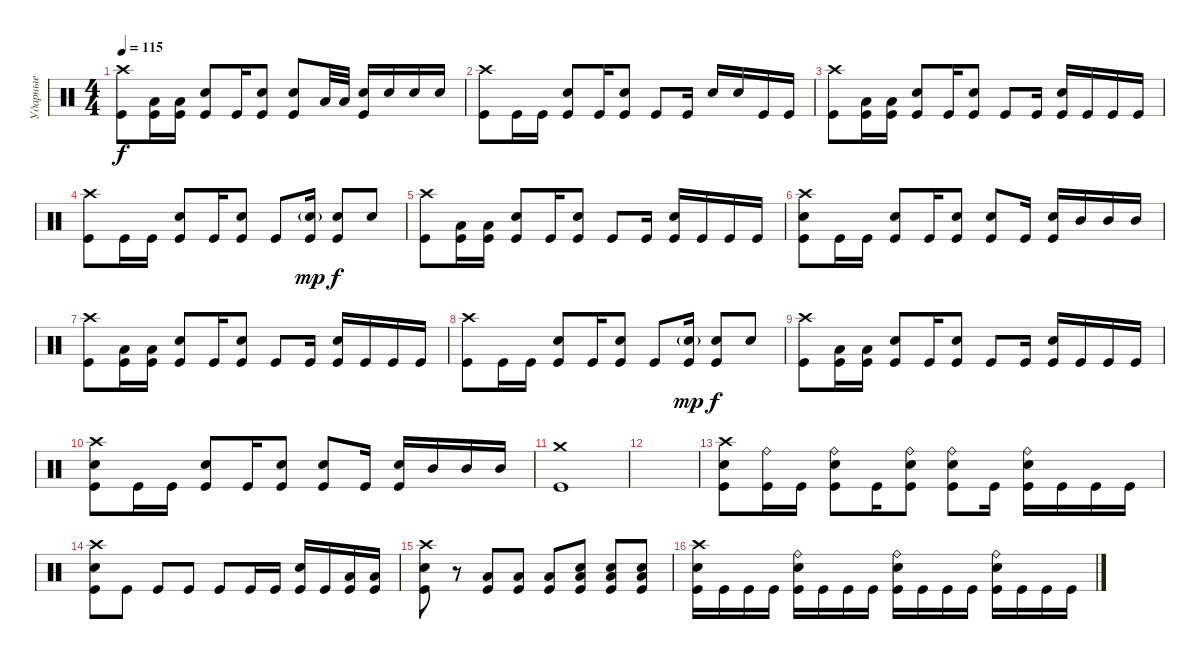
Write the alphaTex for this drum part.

\track ("Ударные" "Ударные") {instrument percussion}
\staff {score}
\articulation defaults
\ts (4 4)
\tempo 115
\clef neutral
\ks c
("Crash high (hit)" "Kick (hit)").8{dy f} ("Low Tom (hit)" "Kick (hit)").16 ("Low Tom (hit)" "Kick (hit)").16 ("Electric Snare (hit)" "Kick (hit)").8 "Kick (hit)".16 ("Electric Snare (hit)" "Kick (hit)").8 ("Electric Snare (hit)" "Kick (hit)").8 "Low Tom (hit)".32 "Low Tom (hit)".32 ("Electric Snare (hit)" "Kick (hit)").16 "Electric Snare (hit)".16 "Electric Snare (hit)".16 "Electric Snare (hit)".16 |
("Crash high (hit)" "Kick (hit)").8 "Kick (hit)".16 "Kick (hit)".16 ("Electric Snare (hit)" "Kick (hit)").8 "Kick (hit)".16 ("Electric Snare (hit)" "Kick (hit)").8 "Kick (hit)".8 "Kick (hit)".16 "Electric Snare (hit)".16 "Electric Snare (hit)".16 "Kick (hit)".16 "Kick (hit)".16 |
("Crash high (hit)" "Kick (hit)").8 ("Low Tom (hit)" "Kick (hit)").16 ("Low Tom (hit)" "Kick (hit)").16 ("Electric Snare (hit)" "Kick (hit)").8 "Kick (hit)".16 ("Electric Snare (hit)" "Kick (hit)").8 "Kick (hit)".8 "Kick (hit)".16 ("Electric Snare (hit)" "Kick (hit)").16 "Kick (hit)".16 "Kick (hit)".16 "Kick (hit)".16 |
("Crash high (hit)" "Kick (hit)").8 "Kick (hit)".16 "Kick (hit)".16 ("Electric Snare (hit)" "Kick (hit)").8 "Kick (hit)".16 ("Electric Snare (hit)" "Kick (hit)").8 "Kick (hit)".8 ("Electric Snare (hit)"{g} "Kick (hit)").16{dy mp} ("Electric Snare (hit)" "Kick (hit)").8{dy f} "Electric Snare (hit)".8 |
("Crash high (hit)" "Kick (hit)").8 ("Low Tom (hit)" "Kick (hit)").16 ("Low Tom (hit)" "Kick (hit)").16 ("Electric Snare (hit)" "Kick (hit)").8 "Kick (hit)".16 ("Electric Snare (hit)" "Kick (hit)").8 "Kick (hit)".8 "Kick (hit)".16 ("Electric Snare (hit)" "Kick (hit)").16 "Kick (hit)".16 "Kick (hit)".16 "Kick (hit)".16 |
("Crash high (hit)" "Electric Snare (hit)" "Kick (hit)").8 "Kick (hit)".16 "Kick (hit)".16 ("Electric Snare (hit)" "Kick (hit)").8 "Kick (hit)".16 ("Electric Snare (hit)" "Kick (hit)").8 ("Electric Snare (hit)" "Kick (hit)").8 "Kick (hit)".16 ("Electric Snare (hit)" "Kick (hit)").16 "Mid Tom (hit)".16 "Mid Tom (hit)".16 "Mid Tom (hit)".16 |
("Crash high (hit)" "Kick (hit)").8 ("Low Tom (hit)" "Kick (hit)").16 ("Low Tom (hit)" "Kick (hit)").16 ("Electric Snare (hit)" "Kick (hit)").8 "Kick (hit)".16 ("Electric Snare (hit)" "Kick (hit)").8 "Kick (hit)".8 "Kick (hit)".16 ("Electric Snare (hit)" "Kick (hit)").16 "Kick (hit)".16 "Kick (hit)".16 "Kick (hit)".16 |
("Crash high (hit)" "Kick (hit)").8 "Kick (hit)".16 "Kick (hit)".16 ("Electric Snare (hit)" "Kick (hit)").8 "Kick (hit)".16 ("Electric Snare (hit)" "Kick (hit)").8 "Kick (hit)".8 ("Electric Snare (hit)"{g} "Kick (hit)").16{dy mp} ("Electric Snare (hit)" "Kick (hit)").8{dy f} "Electric Snare (hit)".8 |
("Crash high (hit)" "Kick (hit)").8 ("Low Tom (hit)" "Kick (hit)").16 ("Low Tom (hit)" "Kick (hit)").16 ("Electric Snare (hit)" "Kick (hit)").8 "Kick (hit)".16 ("Electric Snare (hit)" "Kick (hit)").8 "Kick (hit)".8 "Kick (hit)".16 ("Electric Snare (hit)" "Kick (hit)").16 "Kick (hit)".16 "Kick (hit)".16 "Kick (hit)".16 |
("Crash high (hit)" "Electric Snare (hit)" "Kick (hit)").8 "Kick (hit)".16 "Kick (hit)".16 ("Electric Snare (hit)" "Kick (hit)").8 "Kick (hit)".16 ("Electric Snare (hit)" "Kick (hit)").8 ("Electric Snare (hit)" "Kick (hit)").8 "Kick (hit)".16 ("Electric Snare (hit)" "Kick (hit)").16 "Mid Tom (hit)".16 "Mid Tom (hit)".16 "Mid Tom (hit)".16 |
("Crash medium (hit)" "Kick (hit)").1 |
|
("Crash high (hit)" "Electric Snare (hit)" "Kick (hit)").8 ("Ride (bell)" "Kick (hit)").16 "Kick (hit)".16 ("Ride (bell)" "Electric Snare (hit)" "Kick (hit)").8 "Kick (hit)".16 ("Ride (bell)" "Electric Snare (hit)" "Kick (hit)").8 ("Ride (bell)" "Electric Snare (hit)" "Kick (hit)").8 "Kick (hit)".16 ("Ride (bell)" "Electric Snare (hit)" "Kick (hit)").16 "Kick (hit)".16 "Kick (hit)".16 "Kick (hit)".16 |
("Crash high (hit)" "Electric Snare (hit)" "Kick (hit)").8 "Kick (hit)".8 "Kick (hit)".8 "Kick (hit)".8 "Kick (hit)".8 "Kick (hit)".16 "Kick (hit)".16 ("Electric Snare (hit)" "Kick (hit)").16 "Kick (hit)".16 ("Low Tom (hit)" "Kick (hit)").16 ("Low Tom (hit)" "Kick (hit)").16 |
("Crash high (hit)" "Electric Snare (hit)" "Kick (hit)").8 r.8 ("Low Tom (hit)" "Kick (hit)").8 ("Low Tom (hit)" "Kick (hit)").8 ("Low Tom (hit)" "Kick (hit)").8 ("Electric Snare (hit)" "Low Tom (hit)" "Kick (hit)").8 ("Electric Snare (hit)" "Low Tom (hit)" "Kick (hit)").8 ("Electric Snare (hit)" "Low Tom (hit)" "Kick (hit)").8 |
("Crash high (hit)" "Electric Snare (hit)" "Kick (hit)").16 "Kick (hit)".16 "Kick (hit)".16 "Kick (hit)".16 ("Ride (bell)" "Electric Snare (hit)" "Kick (hit)").16 "Kick (hit)".16 "Kick (hit)".16 "Kick (hit)".16 ("Ride (bell)" "Electric Snare (hit)" "Kick (hit)").16 "Kick (hit)".16 "Kick (hit)".16 "Kick (hit)".16 ("Ride (bell)" "Electric Snare (hit)" "Kick (hit)").16 "Kick (hit)".16 "Kick (hit)".16 "Kick (hit)".16
